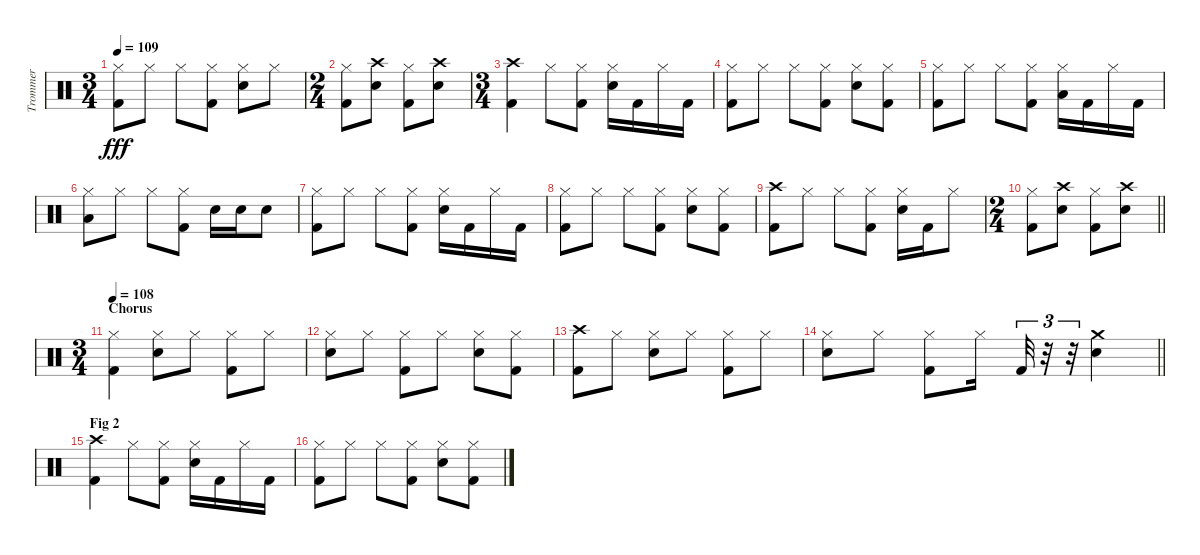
\track ("Trommer" "Trommer") {instrument percussion}
\staff {score}
\articulation defaults
\ts (3 4)
\tempo 109
\clef neutral
\ks c
("Hi-Hat (closed)" "Kick (hit) 2").8{dy fff} "Hi-Hat (closed)".8 "Hi-Hat (closed)".8 ("Hi-Hat (closed)" "Kick (hit) 2").8 ("Hi-Hat (closed)" "Snare (hit) 2").8 "Hi-Hat (closed)".8 |
\ts (2 4)
("Hi-Hat (closed)" "Kick (hit) 2").8 ("Crash high (hit)" "Electric Snare (hit)").8 ("Hi-Hat (closed)" "Kick (hit) 2").8 ("Crash high (hit)" "Electric Snare (hit)").8 |
\ts (3 4)
("Crash high (hit)" "Kick (hit) 2").4 "Hi-Hat (closed)".8 ("Hi-Hat (closed)" "Kick (hit) 2").8 ("Hi-Hat (closed)" "Electric Snare (hit)").16 "Kick (hit) 2".16 "Hi-Hat (closed)".16 "Kick (hit) 2".16 |
("Hi-Hat (closed)" "Kick (hit) 2").8 "Hi-Hat (closed)".8 "Hi-Hat (closed)".8 ("Hi-Hat (closed)" "Kick (hit) 2").8 ("Hi-Hat (closed)" "Electric Snare (hit)").8 ("Hi-Hat (closed)" "Kick (hit) 2").8 |
("Hi-Hat (closed)" "Kick (hit) 2").8 "Hi-Hat (closed)".8 "Hi-Hat (closed)".8 ("Hi-Hat (closed)" "Kick (hit) 2").8 ("Hi-Hat (closed)" "Low Tom (hit)").16 "Kick (hit) 2".16 "Hi-Hat (closed)".16 "Kick (hit) 2".16 |
("Hi-Hat (closed)" "Low Tom (hit)").8 "Hi-Hat (closed)".8 "Hi-Hat (closed)".8 ("Hi-Hat (closed)" "Kick (hit) 2").8 "Electric Snare (hit)".16 "Electric Snare (hit)".16 "Electric Snare (hit)".8 |
("Hi-Hat (closed)" "Kick (hit) 2").8 "Hi-Hat (closed)".8 "Hi-Hat (closed)".8 ("Hi-Hat (closed)" "Kick (hit) 2").8 ("Hi-Hat (closed)" "Electric Snare (hit)").16 "Kick (hit) 2".16 "Hi-Hat (closed)".16 "Kick (hit) 2".16 |
("Hi-Hat (closed)" "Kick (hit) 2").8 "Hi-Hat (closed)".8 "Hi-Hat (closed)".8 ("Hi-Hat (closed)" "Kick (hit) 2").8 ("Hi-Hat (closed)" "Electric Snare (hit)").8 ("Hi-Hat (closed)" "Kick (hit) 2").8 |
("Crash high (hit)" "Kick (hit) 2").8 "Hi-Hat (closed)".8 "Hi-Hat (closed)".8 ("Hi-Hat (closed)" "Kick (hit) 2").8 ("Hi-Hat (closed)" "Electric Snare (hit)").16 "Kick (hit) 2".16 "Hi-Hat (closed)".8 |
\ts (2 4)
\barLineRight lightlight
("Hi-Hat (closed)" "Kick (hit) 2").8 ("Crash high (hit)" "Electric Snare (hit)").8 ("Hi-Hat (closed)" "Kick (hit) 2").8 ("Crash high (hit)" "Electric Snare (hit)").8 |
\ts (3 4)
\section ("" "Chorus")
\tempo 108
("Hi-Hat (closed)" "Kick (hit) 2").4 ("Hi-Hat (closed)" "Electric Snare (hit)").8 "Hi-Hat (closed)".8 ("Hi-Hat (closed)" "Kick (hit) 2").8 "Hi-Hat (closed)".8 |
("Hi-Hat (closed)" "Electric Snare (hit)").8 "Hi-Hat (closed)".8 ("Hi-Hat (closed)" "Kick (hit) 2").8 "Hi-Hat (closed)".8 ("Hi-Hat (closed)" "Electric Snare (hit)").8 ("Hi-Hat (closed)" "Kick (hit) 2").8 |
("Crash high (hit)" "Kick (hit) 2").8 "Hi-Hat (closed)".8 ("Hi-Hat (closed)" "Electric Snare (hit)").8 "Hi-Hat (closed)".8 ("Hi-Hat (closed)" "Kick (hit) 2").8 "Hi-Hat (closed)".8 |
\barLineRight lightlight
("Hi-Hat (closed)" "Electric Snare (hit)").8 "Hi-Hat (closed)".8 ("Hi-Hat (closed)" "Kick (hit) 2").8 "Hi-Hat (closed)".16 "Kick (hit) 2".32{tu (3 2)} r.32{tu (3 2)} r.32{tu (3 2)} ("Crash medium (hit)" "Electric Snare (hit)").4 |
\section ("" "Fig 2")
("Crash high (hit)" "Kick (hit) 2").4 "Hi-Hat (closed)".8 ("Hi-Hat (closed)" "Kick (hit) 2").8 ("Hi-Hat (closed)" "Electric Snare (hit)").16 "Kick (hit) 2".16 "Hi-Hat (closed)".16 "Kick (hit) 2".16 |
("Hi-Hat (closed)" "Kick (hit) 2").8 "Hi-Hat (closed)".8 "Hi-Hat (closed)".8 ("Hi-Hat (closed)" "Kick (hit) 2").8 ("Hi-Hat (closed)" "Electric Snare (hit)").8 ("Hi-Hat (closed)" "Kick (hit) 2").8
